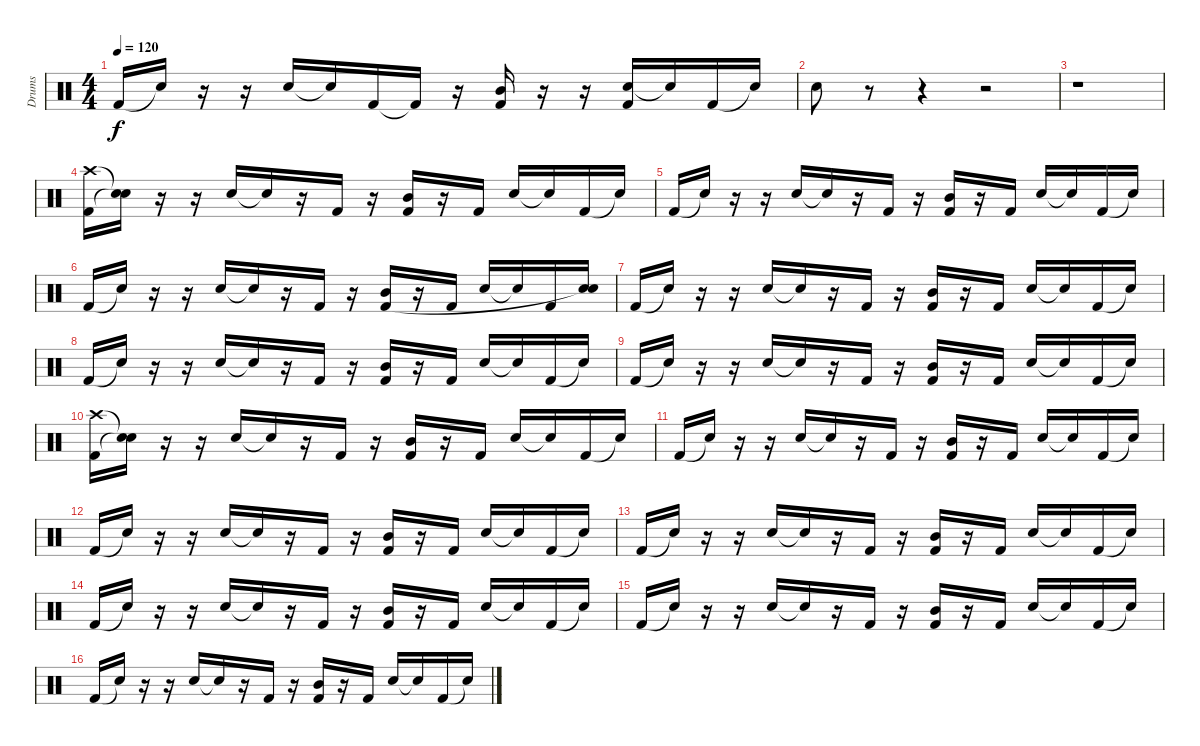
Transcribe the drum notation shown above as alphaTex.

\track ("Drums" "Drums") {instrument percussion}
\staff {score}
\articulation defaults
\ts (4 4)
\tempo 120
\clef neutral
\ks c "Kick (hit) 2".16{dy f} "Snare (hit)"{t}.16
r.16 r.16 "Snare (hit) 2".16 "Snare (hit)"{t}.16 "Kick (hit) 2".16 "Kick (hit) 2"{t}.16 r.16 ("Mid Tom (hit)" "Kick (hit) 2").16 r.16 r.16 ("Snare (hit) 2" "Kick (hit) 2").16 "Snare (hit)"{t}.16 "Kick (hit) 2".16 "Snare (hit)"{t}.16 |
"Snare (hit) 2".8 r.8 r.4 r.2 |
r.1 |
("Crash high (hit)" "Kick (hit) 2").16 ("Snare (hit)"{t} "Snare (hit)"{t}).16 r.16 r.16 "Snare (hit) 2".16 "Snare (hit)"{t}.16 r.16 "Kick (hit) 2".16 r.16 ("Mid Tom (hit)" "Kick (hit) 2").16 r.16 "Kick (hit) 2".16 "Snare (hit) 2".16 "Snare (hit)"{t}.16 "Kick (hit) 2".16 "Snare (hit)"{t}.16 |
"Kick (hit) 2".16 "Snare (hit)"{t}.16 r.16 r.16 "Snare (hit) 2".16 "Snare (hit)"{t}.16 r.16 "Kick (hit) 2".16 r.16 ("Mid Tom (hit)" "Kick (hit) 2").16 r.16 "Kick (hit) 2".16 "Snare (hit) 2".16 "Snare (hit)"{t}.16 "Kick (hit) 2".16 "Snare (hit)"{t}.16 |
"Kick (hit) 2".16 "Snare (hit)"{t}.16 r.16 r.16 "Snare (hit) 2".16 "Snare (hit)"{t}.16 r.16 "Kick (hit) 2".16 r.16 ("Mid Tom (hit)" "Kick (hit) 2").16 r.16 "Kick (hit) 2".16 "Snare (hit) 2".16 "Snare (hit)"{t}.16 "Kick (hit) 2".16 ("Snare (hit) 2" "Snare (hit)"{t}).16 |
"Kick (hit) 2".16 "Snare (hit)"{t}.16 r.16 r.16 "Snare (hit) 2".16 "Snare (hit)"{t}.16 r.16 "Kick (hit) 2".16 r.16 ("Mid Tom (hit)" "Kick (hit) 2").16 r.16 "Kick (hit) 2".16 "Snare (hit) 2".16 "Snare (hit)"{t}.16 "Kick (hit) 2".16 "Snare (hit)"{t}.16 |
"Kick (hit) 2".16 "Snare (hit)"{t}.16 r.16 r.16 "Snare (hit) 2".16 "Snare (hit)"{t}.16 r.16 "Kick (hit) 2".16 r.16 ("Mid Tom (hit)" "Kick (hit) 2").16 r.16 "Kick (hit) 2".16 "Snare (hit) 2".16 "Snare (hit)"{t}.16 "Kick (hit) 2".16 "Snare (hit)"{t}.16 |
"Kick (hit) 2".16 "Snare (hit)"{t}.16 r.16 r.16 "Snare (hit) 2".16 "Snare (hit)"{t}.16 r.16 "Kick (hit) 2".16 r.16 ("Mid Tom (hit)" "Kick (hit) 2").16 r.16 "Kick (hit) 2".16 "Snare (hit) 2".16 "Snare (hit)"{t}.16 "Kick (hit) 2".16 "Snare (hit)"{t}.16 |
("Crash high (hit)" "Kick (hit) 2").16 ("Snare (hit)"{t} "Snare (hit)"{t}).16 r.16 r.16 "Snare (hit) 2".16 "Snare (hit)"{t}.16 r.16 "Kick (hit) 2".16 r.16 ("Mid Tom (hit)" "Kick (hit) 2").16 r.16 "Kick (hit) 2".16 "Snare (hit) 2".16 "Snare (hit)"{t}.16 "Kick (hit) 2".16 "Snare (hit)"{t}.16 |
"Kick (hit) 2".16 "Snare (hit)"{t}.16 r.16 r.16 "Snare (hit) 2".16 "Snare (hit)"{t}.16 r.16 "Kick (hit) 2".16 r.16 ("Mid Tom (hit)" "Kick (hit) 2").16 r.16 "Kick (hit) 2".16 "Snare (hit) 2".16 "Snare (hit)"{t}.16 "Kick (hit) 2".16 "Snare (hit)"{t}.16 |
"Kick (hit) 2".16 "Snare (hit)"{t}.16 r.16 r.16 "Snare (hit) 2".16 "Snare (hit)"{t}.16 r.16 "Kick (hit) 2".16 r.16 ("Mid Tom (hit)" "Kick (hit) 2").16 r.16 "Kick (hit) 2".16 "Snare (hit) 2".16 "Snare (hit)"{t}.16 "Kick (hit) 2".16 "Snare (hit)"{t}.16 |
"Kick (hit) 2".16 "Snare (hit)"{t}.16 r.16 r.16 "Snare (hit) 2".16 "Snare (hit)"{t}.16 r.16 "Kick (hit) 2".16 r.16 ("Mid Tom (hit)" "Kick (hit) 2").16 r.16 "Kick (hit) 2".16 "Snare (hit) 2".16 "Snare (hit)"{t}.16 "Kick (hit) 2".16 "Snare (hit)"{t}.16 |
"Kick (hit) 2".16 "Snare (hit)"{t}.16 r.16 r.16 "Snare (hit) 2".16 "Snare (hit)"{t}.16 r.16 "Kick (hit) 2".16 r.16 ("Mid Tom (hit)" "Kick (hit) 2").16 r.16 "Kick (hit) 2".16 "Snare (hit) 2".16 "Snare (hit)"{t}.16 "Kick (hit) 2".16 "Snare (hit)"{t}.16 |
"Kick (hit) 2".16 "Snare (hit)"{t}.16 r.16 r.16 "Snare (hit) 2".16 "Snare (hit)"{t}.16 r.16 "Kick (hit) 2".16 r.16 ("Mid Tom (hit)" "Kick (hit) 2").16 r.16 "Kick (hit) 2".16 "Snare (hit) 2".16 "Snare (hit)"{t}.16 "Kick (hit) 2".16 "Snare (hit)"{t}.16 |
"Kick (hit) 2".16 "Snare (hit)"{t}.16 r.16 r.16 "Snare (hit) 2".16 "Snare (hit)"{t}.16 r.16 "Kick (hit) 2".16 r.16 ("Mid Tom (hit)" "Kick (hit) 2").16 r.16 "Kick (hit) 2".16 "Snare (hit) 2".16 "Snare (hit)"{t}.16 "Kick (hit) 2".16 "Snare (hit)"{t}.16
